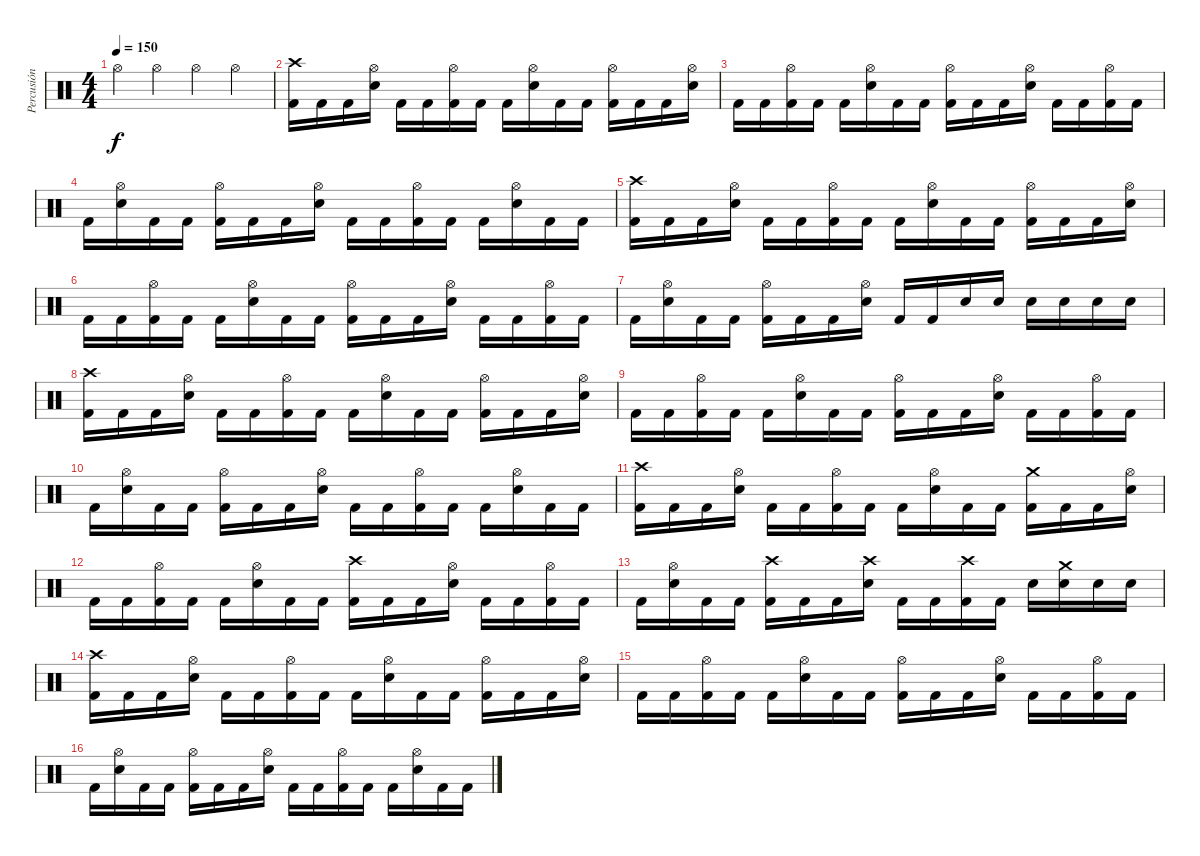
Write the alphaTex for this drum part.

\track ("Percusión" "Percusión") {instrument percussion}
\staff {score}
\articulation defaults
\ts (4 4)
\tempo 150
\clef neutral
\ks c "Hi-Hat (open)".4{dy f} "Hi-Hat (open)".4 "Hi-Hat (open)".4 "Hi-Hat (open)".4
|
("Crash high (hit)" "Kick (hit) 2").16 "Kick (hit) 2".16 "Kick (hit) 2".16 ("Hi-Hat (open)" "Electric Snare (hit)").16 "Kick (hit) 2".16 "Kick (hit) 2".16 ("Hi-Hat (open)" "Kick (hit) 2").16 "Kick (hit) 2".16 "Kick (hit) 2".16 ("Hi-Hat (open)" "Electric Snare (hit)").16 "Kick (hit) 2".16 "Kick (hit) 2".16 ("Hi-Hat (open)" "Kick (hit) 2").16 "Kick (hit) 2".16 "Kick (hit) 2".16 ("Hi-Hat (open)" "Electric Snare (hit)").16 |
"Kick (hit) 2".16 "Kick (hit) 2".16 ("Hi-Hat (open)" "Kick (hit) 2").16 "Kick (hit) 2".16 "Kick (hit) 2".16 ("Hi-Hat (open)" "Electric Snare (hit)").16 "Kick (hit) 2".16 "Kick (hit) 2".16 ("Hi-Hat (open)" "Kick (hit) 2").16 "Kick (hit) 2".16 "Kick (hit) 2".16 ("Hi-Hat (open)" "Electric Snare (hit)").16 "Kick (hit) 2".16 "Kick (hit) 2".16 ("Hi-Hat (open)" "Kick (hit) 2").16 "Kick (hit) 2".16 |
"Kick (hit) 2".16 ("Hi-Hat (open)" "Electric Snare (hit)").16 "Kick (hit) 2".16 "Kick (hit) 2".16 ("Hi-Hat (open)" "Kick (hit) 2").16 "Kick (hit) 2".16 "Kick (hit) 2".16 ("Hi-Hat (open)" "Electric Snare (hit)").16 "Kick (hit) 2".16 "Kick (hit) 2".16 ("Hi-Hat (open)" "Kick (hit) 2").16 "Kick (hit) 2".16 "Kick (hit) 2".16 ("Hi-Hat (open)" "Electric Snare (hit)").16 "Kick (hit) 2".16 "Kick (hit) 2".16 |
("Crash high (hit)" "Kick (hit) 2").16 "Kick (hit) 2".16 "Kick (hit) 2".16 ("Hi-Hat (open)" "Electric Snare (hit)").16 "Kick (hit) 2".16 "Kick (hit) 2".16 ("Hi-Hat (open)" "Kick (hit) 2").16 "Kick (hit) 2".16 "Kick (hit) 2".16 ("Hi-Hat (open)" "Electric Snare (hit)").16 "Kick (hit) 2".16 "Kick (hit) 2".16 ("Hi-Hat (open)" "Kick (hit) 2").16 "Kick (hit) 2".16 "Kick (hit) 2".16 ("Hi-Hat (open)" "Electric Snare (hit)").16 |
"Kick (hit) 2".16 "Kick (hit) 2".16 ("Hi-Hat (open)" "Kick (hit) 2").16 "Kick (hit) 2".16 "Kick (hit) 2".16 ("Hi-Hat (open)" "Electric Snare (hit)").16 "Kick (hit) 2".16 "Kick (hit) 2".16 ("Hi-Hat (open)" "Kick (hit) 2").16 "Kick (hit) 2".16 "Kick (hit) 2".16 ("Hi-Hat (open)" "Electric Snare (hit)").16 "Kick (hit) 2".16 "Kick (hit) 2".16 ("Hi-Hat (open)" "Kick (hit) 2").16 "Kick (hit) 2".16 |
"Kick (hit) 2".16 ("Hi-Hat (open)" "Electric Snare (hit)").16 "Kick (hit) 2".16 "Kick (hit) 2".16 ("Hi-Hat (open)" "Kick (hit) 2").16 "Kick (hit) 2".16 "Kick (hit) 2".16 ("Hi-Hat (open)" "Electric Snare (hit)").16 "Kick (hit) 2".16 "Kick (hit) 2".16 "Electric Snare (hit)".16 "Electric Snare (hit)".16 "Electric Snare (hit)".16 "Electric Snare (hit)".16 "Electric Snare (hit)".16 "Electric Snare (hit)".16 |
("Crash high (hit)" "Kick (hit) 2").16 "Kick (hit) 2".16 "Kick (hit) 2".16 ("Hi-Hat (open)" "Electric Snare (hit)").16 "Kick (hit) 2".16 "Kick (hit) 2".16 ("Hi-Hat (open)" "Kick (hit) 2").16 "Kick (hit) 2".16 "Kick (hit) 2".16 ("Hi-Hat (open)" "Electric Snare (hit)").16 "Kick (hit) 2".16 "Kick (hit) 2".16 ("Hi-Hat (open)" "Kick (hit) 2").16 "Kick (hit) 2".16 "Kick (hit) 2".16 ("Hi-Hat (open)" "Electric Snare (hit)").16 |
"Kick (hit) 2".16 "Kick (hit) 2".16 ("Hi-Hat (open)" "Kick (hit) 2").16 "Kick (hit) 2".16 "Kick (hit) 2".16 ("Hi-Hat (open)" "Electric Snare (hit)").16 "Kick (hit) 2".16 "Kick (hit) 2".16 ("Hi-Hat (open)" "Kick (hit) 2").16 "Kick (hit) 2".16 "Kick (hit) 2".16 ("Hi-Hat (open)" "Electric Snare (hit)").16 "Kick (hit) 2".16 "Kick (hit) 2".16 ("Hi-Hat (open)" "Kick (hit) 2").16 "Kick (hit) 2".16 |
"Kick (hit) 2".16 ("Hi-Hat (open)" "Electric Snare (hit)").16 "Kick (hit) 2".16 "Kick (hit) 2".16 ("Hi-Hat (open)" "Kick (hit) 2").16 "Kick (hit) 2".16 "Kick (hit) 2".16 ("Hi-Hat (open)" "Electric Snare (hit)").16 "Kick (hit) 2".16 "Kick (hit) 2".16 ("Hi-Hat (open)" "Kick (hit) 2").16 "Kick (hit) 2".16 "Kick (hit) 2".16 ("Hi-Hat (open)" "Electric Snare (hit)").16 "Kick (hit) 2".16 "Kick (hit) 2".16 |
("Crash high (hit)" "Kick (hit) 2").16 "Kick (hit) 2".16 "Kick (hit) 2".16 ("Hi-Hat (open)" "Electric Snare (hit)").16 "Kick (hit) 2".16 "Kick (hit) 2".16 ("Hi-Hat (open)" "Kick (hit) 2").16 "Kick (hit) 2".16 "Kick (hit) 2".16 ("Hi-Hat (open)" "Electric Snare (hit)").16 "Kick (hit) 2".16 "Kick (hit) 2".16 ("Crash medium (hit)" "Kick (hit) 2").16 "Kick (hit) 2".16 "Kick (hit) 2".16 ("Hi-Hat (open)" "Electric Snare (hit)").16 |
"Kick (hit) 2".16 "Kick (hit) 2".16 ("Hi-Hat (open)" "Kick (hit) 2").16 "Kick (hit) 2".16 "Kick (hit) 2".16 ("Hi-Hat (open)" "Electric Snare (hit)").16 "Kick (hit) 2".16 "Kick (hit) 2".16 ("Crash high (hit)" "Kick (hit) 2").16 "Kick (hit) 2".16 "Kick (hit) 2".16 ("Hi-Hat (open)" "Electric Snare (hit)").16 "Kick (hit) 2".16 "Kick (hit) 2".16 ("Hi-Hat (open)" "Kick (hit) 2").16 "Kick (hit) 2".16 |
"Kick (hit) 2".16 ("Hi-Hat (open)" "Electric Snare (hit)").16 "Kick (hit) 2".16 "Kick (hit) 2".16 ("Crash high (hit)" "Kick (hit) 2").16 "Kick (hit) 2".16 "Kick (hit) 2".16 ("Crash high (hit)" "Electric Snare (hit)").16 "Kick (hit) 2".16 "Kick (hit) 2".16 ("Crash high (hit)" "Kick (hit) 2").16 "Kick (hit) 2".16 "Electric Snare (hit)".16 ("Crash medium (hit)" "Electric Snare (hit)").16 "Electric Snare (hit)".16 "Electric Snare (hit)".16 |
("Crash high (hit)" "Kick (hit) 2").16 "Kick (hit) 2".16 "Kick (hit) 2".16 ("Hi-Hat (open)" "Electric Snare (hit)").16 "Kick (hit) 2".16 "Kick (hit) 2".16 ("Hi-Hat (open)" "Kick (hit) 2").16 "Kick (hit) 2".16 "Kick (hit) 2".16 ("Hi-Hat (open)" "Electric Snare (hit)").16 "Kick (hit) 2".16 "Kick (hit) 2".16 ("Hi-Hat (open)" "Kick (hit) 2").16 "Kick (hit) 2".16 "Kick (hit) 2".16 ("Hi-Hat (open)" "Electric Snare (hit)").16 |
"Kick (hit) 2".16 "Kick (hit) 2".16 ("Hi-Hat (open)" "Kick (hit) 2").16 "Kick (hit) 2".16 "Kick (hit) 2".16 ("Hi-Hat (open)" "Electric Snare (hit)").16 "Kick (hit) 2".16 "Kick (hit) 2".16 ("Hi-Hat (open)" "Kick (hit) 2").16 "Kick (hit) 2".16 "Kick (hit) 2".16 ("Hi-Hat (open)" "Electric Snare (hit)").16 "Kick (hit) 2".16 "Kick (hit) 2".16 ("Hi-Hat (open)" "Kick (hit) 2").16 "Kick (hit) 2".16 |
"Kick (hit) 2".16 ("Hi-Hat (open)" "Electric Snare (hit)").16 "Kick (hit) 2".16 "Kick (hit) 2".16 ("Hi-Hat (open)" "Kick (hit) 2").16 "Kick (hit) 2".16 "Kick (hit) 2".16 ("Hi-Hat (open)" "Electric Snare (hit)").16 "Kick (hit) 2".16 "Kick (hit) 2".16 ("Hi-Hat (open)" "Kick (hit) 2").16 "Kick (hit) 2".16 "Kick (hit) 2".16 ("Hi-Hat (open)" "Electric Snare (hit)").16 "Kick (hit) 2".16 "Kick (hit) 2".16
